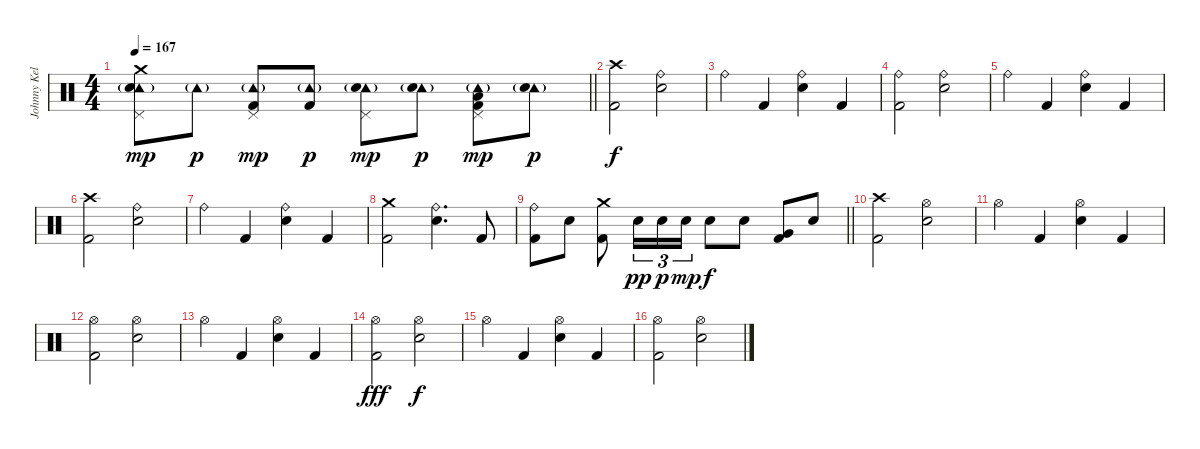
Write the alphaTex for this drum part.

\track ("Johnny Kelly" "Johnny Kel") {instrument percussion}
\staff {score}
\articulation defaults
\ts (4 4)
\tempo 167
\clef neutral
\barLineRight lightlight
\ks c
("Tambourine (hit)"{g} "Pedal Hi-Hat (hit)" "Crash medium (hit)" "Electric Snare (hit)").8{dy mp} "Tambourine (hit)"{g}.8{dy p} ("Tambourine (hit)"{g} "Pedal Hi-Hat (hit)" "Kick (hit) 2").8{dy mp} ("Tambourine (hit)"{g} "Kick (hit) 2").8{dy p} ("Tambourine (hit)"{g} "Pedal Hi-Hat (hit)" "Electric Snare (hit)").8{dy mp} ("Tambourine (hit)"{g} "Electric Snare (hit)").8{dy p} ("Tambourine (hit)"{g} "Pedal Hi-Hat (hit)" "Low Floor Tom (hit)" "Kick (hit) 2").8{dy mp} ("Tambourine (hit)"{g} "Electric Snare (hit)").8{dy p} |
\section ("" "")
("Crash high (hit)" "Kick (hit) 2").2{dy f} ("Ride (bell)" "Electric Snare (hit)").2 |
"Ride (bell)".4 "Kick (hit) 2".4 ("Ride (bell)" "Electric Snare (hit)").4 "Kick (hit) 2".4 |
("Ride (bell)" "Kick (hit) 2").2 ("Ride (bell)" "Electric Snare (hit)").2 |
"Ride (bell)".4 "Kick (hit) 2".4 ("Ride (bell)" "Electric Snare (hit)").4 "Kick (hit) 2".4 |
("Crash high (hit)" "Kick (hit) 2").2 ("Ride (bell)" "Electric Snare (hit)").2 |
"Ride (bell)".4 "Kick (hit) 2".4 ("Ride (bell)" "Electric Snare (hit)").4 "Kick (hit) 2".4 |
("Crash medium (hit)" "Kick (hit) 2").2 ("Ride (bell)" "Electric Snare (hit)").4{d} "Kick (hit) 2".8 |
\barLineRight lightlight
("Ride (bell)" "Kick (hit) 2").8 "Electric Snare (hit)".8 ("Crash medium (hit)" "Kick (hit) 2").8 "Electric Snare (hit)".16{tu (3 2) dy pp} "Electric Snare (hit)".16{tu (3 2) dy p} "Electric Snare (hit)".16{tu (3 2) dy mp} "Electric Snare (hit)".8{dy f} "Electric Snare (hit)".8 ("Very Low Tom (hit)" "Kick (hit) 2").8 "Electric Snare (hit)".8 |
\section ("" "")
("Crash high (hit)" "Kick (hit) 2").2 ("Hi-Hat (open)" "Electric Snare (hit)").2 |
"Hi-Hat (open)".4 "Kick (hit) 2".4 ("Hi-Hat (open)" "Electric Snare (hit)").4 "Kick (hit) 2".4 |
("Hi-Hat (open)" "Kick (hit) 2").2 ("Hi-Hat (open)" "Electric Snare (hit)").2 |
"Hi-Hat (open)".4 "Kick (hit) 2".4 ("Hi-Hat (open)" "Electric Snare (hit)").4 "Kick (hit) 2".4 |
("Hi-Hat (open)" "Kick (hit) 2").2{dy fff} ("Hi-Hat (open)" "Electric Snare (hit)").2{dy f} |
"Hi-Hat (open)".4 "Kick (hit) 2".4 ("Hi-Hat (open)" "Electric Snare (hit)").4 "Kick (hit) 2".4 |
("Hi-Hat (open)" "Kick (hit) 2").2 ("Hi-Hat (open)" "Electric Snare (hit)").2
